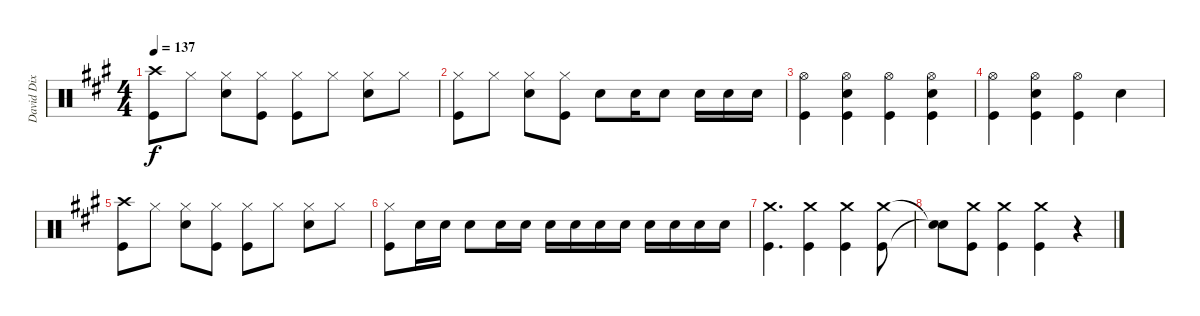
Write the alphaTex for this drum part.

\track ("David Dix Drums" "David Dix ") {instrument percussion}
\staff {score}
\articulation defaults
\ts (4 4)
\tempo 137
\clef neutral
\ks a
("Crash high (hit)" "Kick (hit)").8{dy f} "Hi-Hat (closed)".8 ("Hi-Hat (closed)" "Snare (hit) 2").8 ("Hi-Hat (closed)" "Kick (hit)").8 ("Hi-Hat (closed)" "Kick (hit)").8 "Hi-Hat (closed)".8 ("Hi-Hat (closed)" "Snare (hit) 2").8 "Hi-Hat (closed)".8 |
("Hi-Hat (closed)" "Kick (hit)").8 "Hi-Hat (closed)".8 ("Hi-Hat (closed)" "Snare (hit) 2").8 ("Hi-Hat (closed)" "Kick (hit)").8 "Snare (hit) 2".8 "Snare (hit) 2".16 "Snare (hit) 2".8 "Snare (hit) 2".16 "Snare (hit) 2".16 "Snare (hit) 2".16 |
("Hi-Hat (open)" "Kick (hit)").4 ("Hi-Hat (open)" "Snare (hit) 2" "Kick (hit)").4 ("Hi-Hat (open)" "Kick (hit)").4 ("Hi-Hat (open)" "Snare (hit) 2" "Kick (hit)").4 |
("Hi-Hat (open)" "Kick (hit)").4 ("Hi-Hat (open)" "Snare (hit) 2" "Kick (hit)").4 ("Hi-Hat (open)" "Kick (hit)").4 "Snare (hit) 2".4 |
("Crash high (hit)" "Kick (hit)").8 "Hi-Hat (closed)".8 ("Hi-Hat (closed)" "Snare (hit) 2").8 ("Hi-Hat (closed)" "Kick (hit)").8 ("Hi-Hat (closed)" "Kick (hit)").8 "Hi-Hat (closed)".8 ("Hi-Hat (closed)" "Snare (hit) 2").8 "Hi-Hat (closed)".8 |
("Hi-Hat (closed)" "Kick (hit)").8 "Snare (hit) 2".16 "Snare (hit) 2".16 "Snare (hit) 2".8 "Snare (hit) 2".16 "Snare (hit) 2".16 "Snare (hit) 2".16 "Snare (hit) 2".16 "Snare (hit) 2".16 "Snare (hit) 2".16 "Snare (hit) 2".16 "Snare (hit) 2".16 "Snare (hit) 2".16 "Snare (hit) 2".16 |
("Crash medium (hit)" "Kick (hit)").4{d} ("Crash medium (hit)" "Kick (hit)").4 ("Crash medium (hit)" "Kick (hit)").4 ("Crash medium (hit)" "Kick (hit)").8 |
("Snare (hit)"{t} "Snare (hit)"{t}).8 ("Crash medium (hit)" "Kick (hit)").8 ("Crash medium (hit)" "Kick (hit)").4 ("Crash medium (hit)" "Kick (hit)").4 r.4
